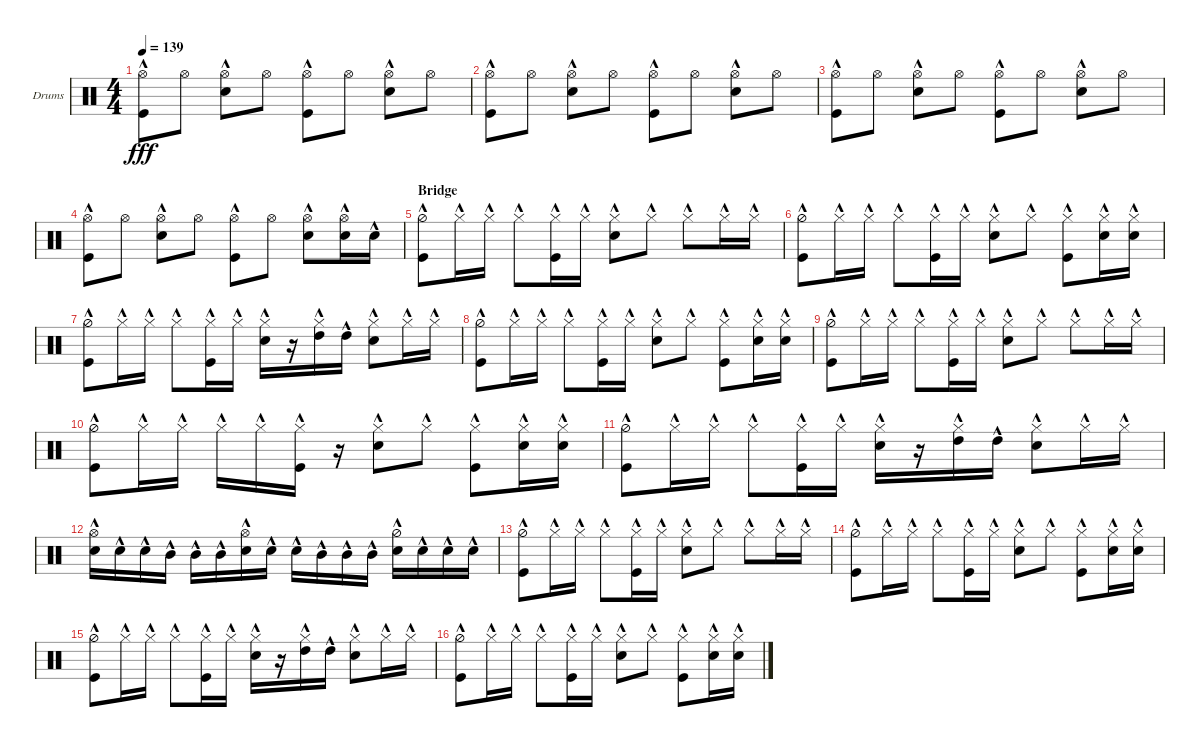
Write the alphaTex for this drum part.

\bracketExtendMode groupsimilarinstruments
\firstSystemTrackNameOrientation horizontal
\otherSystemsTrackNameOrientation horizontal
\track ("Drumkit" "Drums") {instrument percussion}
\staff {score}
\articulation defaults
\ts (4 4)
\tempo 139
\clef neutral
\ks c
("Hi-Hat (open)"{hac} "Kick (hit)"{hac}).8{dy fff} "Hi-Hat (open)".8 ("Hi-Hat (open)"{hac} "Snare (hit) 2"{hac}).8 "Hi-Hat (open)".8 ("Hi-Hat (open)"{hac} "Kick (hit)"{hac}).8 "Hi-Hat (open)".8 ("Hi-Hat (open)"{hac} "Snare (hit) 2"{hac}).8 "Hi-Hat (open)".8 |
("Hi-Hat (open)"{hac} "Kick (hit)"{hac}).8 "Hi-Hat (open)".8 ("Hi-Hat (open)"{hac} "Snare (hit) 2"{hac}).8 "Hi-Hat (open)".8 ("Hi-Hat (open)"{hac} "Kick (hit)"{hac}).8 "Hi-Hat (open)".8 ("Hi-Hat (open)"{hac} "Snare (hit) 2"{hac}).8 "Hi-Hat (open)".8 |
("Hi-Hat (open)"{hac} "Kick (hit)"{hac}).8 "Hi-Hat (open)".8 ("Hi-Hat (open)"{hac} "Snare (hit) 2"{hac}).8 "Hi-Hat (open)".8 ("Hi-Hat (open)"{hac} "Kick (hit)"{hac}).8 "Hi-Hat (open)".8 ("Hi-Hat (open)"{hac} "Snare (hit) 2"{hac}).8 "Hi-Hat (open)".8 |
("Hi-Hat (open)"{hac} "Kick (hit)"{hac}).8 "Hi-Hat (open)".8 ("Hi-Hat (open)"{hac} "Snare (hit) 2"{hac}).8 "Hi-Hat (open)".8 ("Hi-Hat (open)"{hac} "Kick (hit)"{hac}).8 "Hi-Hat (open)".8 ("Hi-Hat (open)"{hac} "Snare (hit) 2"{hac}).8 ("Hi-Hat (open)" "Snare (hit) 2"{hac}).16 "Snare (hit) 2"{hac}.16 |
\section ("" "Bridge")
("Kick (hit)"{hac} "Hi-Hat (half)"{hac}).8 "Hi-Hat (closed)"{hac}.16 "Hi-Hat (closed)"{hac}.16 "Hi-Hat (closed)"{hac}.8 ("Kick (hit)"{hac} "Hi-Hat (closed)"{hac}).16 "Hi-Hat (closed)"{hac}.16 ("Hi-Hat (closed)"{hac} "Snare (hit) 2"{hac}).8 "Hi-Hat (closed)"{hac}.8 "Hi-Hat (closed)"{hac}.8 "Hi-Hat (closed)"{hac}.16 "Hi-Hat (closed)"{hac}.16 |
("Kick (hit)"{hac} "Hi-Hat (half)"{hac}).8 "Hi-Hat (closed)"{hac}.16 "Hi-Hat (closed)"{hac}.16 "Hi-Hat (closed)"{hac}.8 ("Kick (hit)"{hac} "Hi-Hat (closed)"{hac}).16 "Hi-Hat (closed)"{hac}.16 ("Hi-Hat (closed)"{hac} "Snare (hit) 2"{hac}).8 "Hi-Hat (closed)"{hac}.8 ("Hi-Hat (closed)"{hac} "Kick (hit)"{hac}).8 ("Hi-Hat (closed)"{hac} "Snare (hit) 2"{hac}).16 ("Hi-Hat (closed)"{hac} "Snare (hit) 2"{hac}).16 |
("Kick (hit)"{hac} "Hi-Hat (half)"{hac}).8 "Hi-Hat (closed)"{hac}.16 "Hi-Hat (closed)"{hac}.16 "Hi-Hat (closed)"{hac}.8 ("Kick (hit)"{hac} "Hi-Hat (closed)"{hac}).16 "Hi-Hat (closed)"{hac}.16 ("Hi-Hat (closed)"{hac} "Snare (hit) 2"{hac}).16 r.16 ("Hi-Hat (closed)"{hac} "High Tom (hit)"{hac}).16 "High Tom (hit)"{hac}.16 ("Hi-Hat (closed)"{hac} "Snare (hit) 2"{hac}).8 "Hi-Hat (closed)"{hac}.16 "Hi-Hat (closed)"{hac}.16 |
("Kick (hit)"{hac} "Hi-Hat (half)"{hac}).8 "Hi-Hat (closed)"{hac}.16 "Hi-Hat (closed)"{hac}.16 "Hi-Hat (closed)"{hac}.8 ("Kick (hit)"{hac} "Hi-Hat (closed)"{hac}).16 "Hi-Hat (closed)"{hac}.16 ("Hi-Hat (closed)"{hac} "Snare (hit) 2"{hac}).8 "Hi-Hat (closed)"{hac}.8 ("Hi-Hat (closed)"{hac} "Kick (hit)"{hac}).8 ("Hi-Hat (closed)"{hac} "Snare (hit) 2"{hac}).16 ("Hi-Hat (closed)"{hac} "Snare (hit) 2"{hac}).16 |
("Kick (hit)"{hac} "Hi-Hat (half)"{hac}).8 "Hi-Hat (closed)"{hac}.16 "Hi-Hat (closed)"{hac}.16 "Hi-Hat (closed)"{hac}.8 ("Kick (hit)"{hac} "Hi-Hat (closed)"{hac}).16 "Hi-Hat (closed)"{hac}.16 ("Hi-Hat (closed)"{hac} "Snare (hit) 2"{hac}).8 "Hi-Hat (closed)"{hac}.8 "Hi-Hat (closed)"{hac}.8 "Hi-Hat (closed)"{hac}.16 "Hi-Hat (closed)"{hac}.16 |
("Kick (hit)"{hac} "Hi-Hat (half)"{hac}).8 "Hi-Hat (closed)"{hac}.16 "Hi-Hat (closed)"{hac}.16 "Hi-Hat (closed)"{hac}.16 "Hi-Hat (closed)"{hac}.16 ("Kick (hit)"{hac} "Hi-Hat (closed)"{hac}).16 r.16 ("Hi-Hat (closed)"{hac} "Snare (hit) 2"{hac}).8 "Hi-Hat (closed)"{hac}.8 ("Hi-Hat (closed)"{hac} "Kick (hit)"{hac}).8 ("Hi-Hat (closed)"{hac} "Snare (hit) 2"{hac}).16 ("Hi-Hat (closed)"{hac} "Snare (hit) 2"{hac}).16 |
("Kick (hit)"{hac} "Hi-Hat (half)"{hac}).8 "Hi-Hat (closed)"{hac}.16 "Hi-Hat (closed)"{hac}.16 "Hi-Hat (closed)"{hac}.8 ("Kick (hit)"{hac} "Hi-Hat (closed)"{hac}).16 "Hi-Hat (closed)"{hac}.16 ("Hi-Hat (closed)"{hac} "Snare (hit) 2"{hac}).16 r.16 ("Hi-Hat (closed)"{hac} "High Tom (hit)"{hac}).16 "High Tom (hit)"{hac}.16 ("Hi-Hat (closed)"{hac} "Snare (hit) 2"{hac}).8 "Hi-Hat (closed)"{hac}.16 "Hi-Hat (closed)"{hac}.16 |
("Snare (hit) 2"{hac} "Hi-Hat (open)"{hac}).16 "Snare (hit) 2"{hac}.16 "Snare (hit) 2"{hac}.16 "Mid Tom (hit)"{hac}.16 "Mid Tom (hit)"{hac}.16 "Mid Tom (hit)"{hac}.16 ("Snare (hit) 2"{hac} "Hi-Hat (open)"{hac}).16 "Snare (hit) 2"{hac}.16 "Snare (hit) 2"{hac}.16 "Mid Tom (hit)"{hac}.16 "Mid Tom (hit)"{hac}.16 "Mid Tom (hit)"{hac}.16 ("Snare (hit) 2"{hac} "Hi-Hat (half)"{hac}).16 "Snare (hit) 2"{hac}.16 "Snare (hit) 2"{hac}.16 "Snare (hit) 2"{hac}.16 |
("Kick (hit)"{hac} "Hi-Hat (half)"{hac}).8 "Hi-Hat (closed)"{hac}.16 "Hi-Hat (closed)"{hac}.16 "Hi-Hat (closed)"{hac}.8 ("Kick (hit)"{hac} "Hi-Hat (closed)"{hac}).16 "Hi-Hat (closed)"{hac}.16 ("Hi-Hat (closed)"{hac} "Snare (hit) 2"{hac}).8 "Hi-Hat (closed)"{hac}.8 "Hi-Hat (closed)"{hac}.8 "Hi-Hat (closed)"{hac}.16 "Hi-Hat (closed)"{hac}.16 |
("Kick (hit)"{hac} "Hi-Hat (half)"{hac}).8 "Hi-Hat (closed)"{hac}.16 "Hi-Hat (closed)"{hac}.16 "Hi-Hat (closed)"{hac}.8 ("Kick (hit)"{hac} "Hi-Hat (closed)"{hac}).16 "Hi-Hat (closed)"{hac}.16 ("Hi-Hat (closed)"{hac} "Snare (hit) 2"{hac}).8 "Hi-Hat (closed)"{hac}.8 ("Hi-Hat (closed)"{hac} "Kick (hit)"{hac}).8 ("Hi-Hat (closed)"{hac} "Snare (hit) 2"{hac}).16 ("Hi-Hat (closed)"{hac} "Snare (hit) 2"{hac}).16 |
("Kick (hit)"{hac} "Hi-Hat (half)"{hac}).8 "Hi-Hat (closed)"{hac}.16 "Hi-Hat (closed)"{hac}.16 "Hi-Hat (closed)"{hac}.8 ("Kick (hit)"{hac} "Hi-Hat (closed)"{hac}).16 "Hi-Hat (closed)"{hac}.16 ("Hi-Hat (closed)"{hac} "Snare (hit) 2"{hac}).16 r.16 ("Hi-Hat (closed)"{hac} "High Tom (hit)"{hac}).16 "High Tom (hit)"{hac}.16 ("Hi-Hat (closed)"{hac} "Snare (hit) 2"{hac}).8 "Hi-Hat (closed)"{hac}.16 "Hi-Hat (closed)"{hac}.16 |
("Kick (hit)"{hac} "Hi-Hat (half)"{hac}).8 "Hi-Hat (closed)"{hac}.16 "Hi-Hat (closed)"{hac}.16 "Hi-Hat (closed)"{hac}.8 ("Kick (hit)"{hac} "Hi-Hat (closed)"{hac}).16 "Hi-Hat (closed)"{hac}.16 ("Hi-Hat (closed)"{hac} "Snare (hit) 2"{hac}).8 "Hi-Hat (closed)"{hac}.8 ("Hi-Hat (closed)"{hac} "Kick (hit)"{hac}).8 ("Hi-Hat (closed)"{hac} "Snare (hit) 2"{hac}).16 ("Hi-Hat (closed)"{hac} "Snare (hit) 2"{hac}).16
